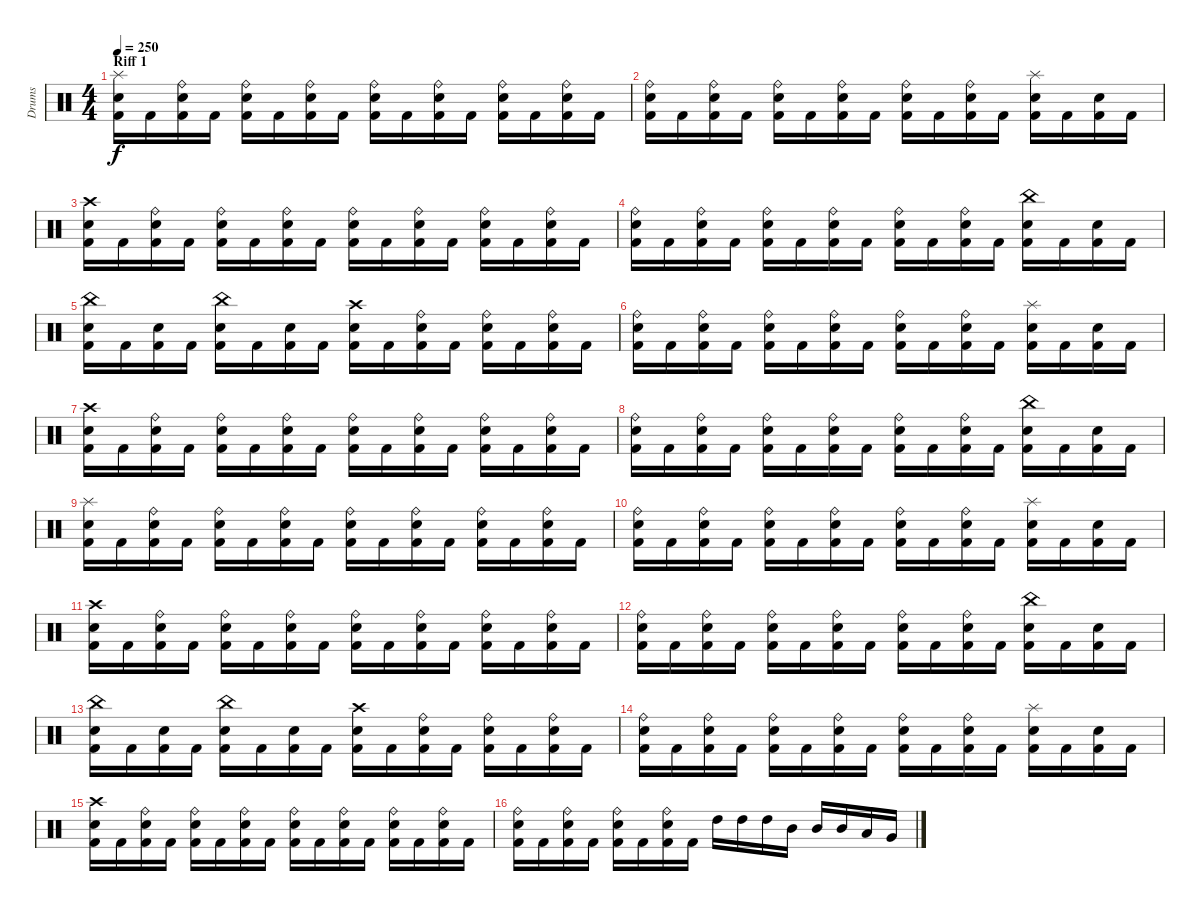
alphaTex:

\track ("Drums" "Drums") {instrument percussion}
\staff {score}
\articulation defaults
\ts (4 4)
\section ("" "Riff 1")
\tempo 250
\clef neutral
\ks c
("Kick (hit) 2" "Snare (hit) 2" "Splash (hit)").16{dy f} "Kick (hit) 2".16 ("Kick (hit) 2" "Snare (hit) 2" "Ride (bell)").16 "Kick (hit) 2".16 ("Kick (hit) 2" "Snare (hit) 2" "Ride (bell)").16 "Kick (hit) 2".16 ("Kick (hit) 2" "Snare (hit) 2" "Ride (bell)").16 "Kick (hit) 2".16 ("Kick (hit) 2" "Snare (hit) 2" "Ride (bell)").16 "Kick (hit) 2".16 ("Kick (hit) 2" "Snare (hit) 2" "Ride (bell)").16 "Kick (hit) 2".16 ("Kick (hit) 2" "Snare (hit) 2" "Ride (bell)").16 "Kick (hit) 2".16 ("Kick (hit) 2" "Snare (hit) 2" "Ride (bell)").16 "Kick (hit) 2".16 |
("Kick (hit) 2" "Snare (hit) 2" "Ride (bell)").16 "Kick (hit) 2".16 ("Kick (hit) 2" "Snare (hit) 2" "Ride (bell)").16 "Kick (hit) 2".16 ("Kick (hit) 2" "Snare (hit) 2" "Ride (bell)").16 "Kick (hit) 2".16 ("Kick (hit) 2" "Snare (hit) 2" "Ride (bell)").16 "Kick (hit) 2".16 ("Kick (hit) 2" "Snare (hit) 2" "Ride (bell)").16 "Kick (hit) 2".16 ("Kick (hit) 2" "Snare (hit) 2" "Ride (bell)").16 "Kick (hit) 2".16 ("Kick (hit) 2" "Snare (hit) 2" "Splash (hit)").16 "Kick (hit) 2".16 ("Kick (hit) 2" "Snare (hit) 2").16 "Kick (hit) 2".16 |
("Kick (hit) 2" "Snare (hit) 2" "Crash high (hit)").16 "Kick (hit) 2".16 ("Kick (hit) 2" "Snare (hit) 2" "Ride (bell)").16 "Kick (hit) 2".16 ("Kick (hit) 2" "Snare (hit) 2" "Ride (bell)").16 "Kick (hit) 2".16 ("Kick (hit) 2" "Snare (hit) 2" "Ride (bell)").16 "Kick (hit) 2".16 ("Kick (hit) 2" "Snare (hit) 2" "Ride (bell)").16 "Kick (hit) 2".16 ("Kick (hit) 2" "Snare (hit) 2" "Ride (bell)").16 "Kick (hit) 2".16 ("Kick (hit) 2" "Snare (hit) 2" "Ride (bell)").16 "Kick (hit) 2".16 ("Kick (hit) 2" "Snare (hit) 2" "Ride (bell)").16 "Kick (hit) 2".16 |
("Kick (hit) 2" "Snare (hit) 2" "Ride (bell)").16 "Kick (hit) 2".16 ("Kick (hit) 2" "Snare (hit) 2" "Ride (bell)").16 "Kick (hit) 2".16 ("Kick (hit) 2" "Snare (hit) 2" "Ride (bell)").16 "Kick (hit) 2".16 ("Kick (hit) 2" "Snare (hit) 2" "Ride (bell)").16 "Kick (hit) 2".16 ("Kick (hit) 2" "Snare (hit) 2" "Ride (bell)").16 "Kick (hit) 2".16 ("Kick (hit) 2" "Snare (hit) 2" "Ride (bell)").16 "Kick (hit) 2".16 ("Kick (hit) 2" "Snare (hit) 2" "China (hit)").16 "Kick (hit) 2".16 ("Kick (hit) 2" "Snare (hit) 2").16 "Kick (hit) 2".16 |
("Kick (hit) 2" "Snare (hit) 2" "China (hit)").16 "Kick (hit) 2".16 ("Kick (hit) 2" "Snare (hit) 2").16 "Kick (hit) 2".16 ("Kick (hit) 2" "Snare (hit) 2" "China (hit)").16 "Kick (hit) 2".16 ("Kick (hit) 2" "Snare (hit) 2").16 "Kick (hit) 2".16 ("Kick (hit) 2" "Snare (hit) 2" "Crash high (hit)").16 "Kick (hit) 2".16 ("Kick (hit) 2" "Snare (hit) 2" "Ride (bell)").16 "Kick (hit) 2".16 ("Kick (hit) 2" "Snare (hit) 2" "Ride (bell)").16 "Kick (hit) 2".16 ("Kick (hit) 2" "Snare (hit) 2" "Ride (bell)").16 "Kick (hit) 2".16 |
("Kick (hit) 2" "Snare (hit) 2" "Ride (bell)").16 "Kick (hit) 2".16 ("Kick (hit) 2" "Snare (hit) 2" "Ride (bell)").16 "Kick (hit) 2".16 ("Kick (hit) 2" "Snare (hit) 2" "Ride (bell)").16 "Kick (hit) 2".16 ("Kick (hit) 2" "Snare (hit) 2" "Ride (bell)").16 "Kick (hit) 2".16 ("Kick (hit) 2" "Snare (hit) 2" "Ride (bell)").16 "Kick (hit) 2".16 ("Kick (hit) 2" "Snare (hit) 2" "Ride (bell)").16 "Kick (hit) 2".16 ("Kick (hit) 2" "Snare (hit) 2" "Splash (hit)").16 "Kick (hit) 2".16 ("Kick (hit) 2" "Snare (hit) 2").16 "Kick (hit) 2".16 |
("Kick (hit) 2" "Snare (hit) 2" "Crash high (hit)").16 "Kick (hit) 2".16 ("Kick (hit) 2" "Snare (hit) 2" "Ride (bell)").16 "Kick (hit) 2".16 ("Kick (hit) 2" "Snare (hit) 2" "Ride (bell)").16 "Kick (hit) 2".16 ("Kick (hit) 2" "Snare (hit) 2" "Ride (bell)").16 "Kick (hit) 2".16 ("Kick (hit) 2" "Snare (hit) 2" "Ride (bell)").16 "Kick (hit) 2".16 ("Kick (hit) 2" "Snare (hit) 2" "Ride (bell)").16 "Kick (hit) 2".16 ("Kick (hit) 2" "Snare (hit) 2" "Ride (bell)").16 "Kick (hit) 2".16 ("Kick (hit) 2" "Snare (hit) 2" "Ride (bell)").16 "Kick (hit) 2".16 |
("Kick (hit) 2" "Snare (hit) 2" "Ride (bell)").16 "Kick (hit) 2".16 ("Kick (hit) 2" "Snare (hit) 2" "Ride (bell)").16 "Kick (hit) 2".16 ("Kick (hit) 2" "Snare (hit) 2" "Ride (bell)").16 "Kick (hit) 2".16 ("Kick (hit) 2" "Snare (hit) 2" "Ride (bell)").16 "Kick (hit) 2".16 ("Kick (hit) 2" "Snare (hit) 2" "Ride (bell)").16 "Kick (hit) 2".16 ("Kick (hit) 2" "Snare (hit) 2" "Ride (bell)").16 "Kick (hit) 2".16 ("Kick (hit) 2" "Snare (hit) 2" "China (hit)").16 "Kick (hit) 2".16 ("Kick (hit) 2" "Snare (hit) 2").16 "Kick (hit) 2".16 |
("Kick (hit) 2" "Snare (hit) 2" "Splash (hit)").16 "Kick (hit) 2".16 ("Kick (hit) 2" "Snare (hit) 2" "Ride (bell)").16 "Kick (hit) 2".16 ("Kick (hit) 2" "Snare (hit) 2" "Ride (bell)").16 "Kick (hit) 2".16 ("Kick (hit) 2" "Snare (hit) 2" "Ride (bell)").16 "Kick (hit) 2".16 ("Kick (hit) 2" "Snare (hit) 2" "Ride (bell)").16 "Kick (hit) 2".16 ("Kick (hit) 2" "Snare (hit) 2" "Ride (bell)").16 "Kick (hit) 2".16 ("Kick (hit) 2" "Snare (hit) 2" "Ride (bell)").16 "Kick (hit) 2".16 ("Kick (hit) 2" "Snare (hit) 2" "Ride (bell)").16 "Kick (hit) 2".16 |
("Kick (hit) 2" "Snare (hit) 2" "Ride (bell)").16 "Kick (hit) 2".16 ("Kick (hit) 2" "Snare (hit) 2" "Ride (bell)").16 "Kick (hit) 2".16 ("Kick (hit) 2" "Snare (hit) 2" "Ride (bell)").16 "Kick (hit) 2".16 ("Kick (hit) 2" "Snare (hit) 2" "Ride (bell)").16 "Kick (hit) 2".16 ("Kick (hit) 2" "Snare (hit) 2" "Ride (bell)").16 "Kick (hit) 2".16 ("Kick (hit) 2" "Snare (hit) 2" "Ride (bell)").16 "Kick (hit) 2".16 ("Kick (hit) 2" "Snare (hit) 2" "Splash (hit)").16 "Kick (hit) 2".16 ("Kick (hit) 2" "Snare (hit) 2").16 "Kick (hit) 2".16 |
("Kick (hit) 2" "Snare (hit) 2" "Crash high (hit)").16 "Kick (hit) 2".16 ("Kick (hit) 2" "Snare (hit) 2" "Ride (bell)").16 "Kick (hit) 2".16 ("Kick (hit) 2" "Snare (hit) 2" "Ride (bell)").16 "Kick (hit) 2".16 ("Kick (hit) 2" "Snare (hit) 2" "Ride (bell)").16 "Kick (hit) 2".16 ("Kick (hit) 2" "Snare (hit) 2" "Ride (bell)").16 "Kick (hit) 2".16 ("Kick (hit) 2" "Snare (hit) 2" "Ride (bell)").16 "Kick (hit) 2".16 ("Kick (hit) 2" "Snare (hit) 2" "Ride (bell)").16 "Kick (hit) 2".16 ("Kick (hit) 2" "Snare (hit) 2" "Ride (bell)").16 "Kick (hit) 2".16 |
("Kick (hit) 2" "Snare (hit) 2" "Ride (bell)").16 "Kick (hit) 2".16 ("Kick (hit) 2" "Snare (hit) 2" "Ride (bell)").16 "Kick (hit) 2".16 ("Kick (hit) 2" "Snare (hit) 2" "Ride (bell)").16 "Kick (hit) 2".16 ("Kick (hit) 2" "Snare (hit) 2" "Ride (bell)").16 "Kick (hit) 2".16 ("Kick (hit) 2" "Snare (hit) 2" "Ride (bell)").16 "Kick (hit) 2".16 ("Kick (hit) 2" "Snare (hit) 2" "Ride (bell)").16 "Kick (hit) 2".16 ("Kick (hit) 2" "Snare (hit) 2" "China (hit)").16 "Kick (hit) 2".16 ("Kick (hit) 2" "Snare (hit) 2").16 "Kick (hit) 2".16 |
("Kick (hit) 2" "Snare (hit) 2" "China (hit)").16 "Kick (hit) 2".16 ("Kick (hit) 2" "Snare (hit) 2").16 "Kick (hit) 2".16 ("Kick (hit) 2" "Snare (hit) 2" "China (hit)").16 "Kick (hit) 2".16 ("Kick (hit) 2" "Snare (hit) 2").16 "Kick (hit) 2".16 ("Kick (hit) 2" "Snare (hit) 2" "Crash high (hit)").16 "Kick (hit) 2".16 ("Kick (hit) 2" "Snare (hit) 2" "Ride (bell)").16 "Kick (hit) 2".16 ("Kick (hit) 2" "Snare (hit) 2" "Ride (bell)").16 "Kick (hit) 2".16 ("Kick (hit) 2" "Snare (hit) 2" "Ride (bell)").16 "Kick (hit) 2".16 |
("Kick (hit) 2" "Snare (hit) 2" "Ride (bell)").16 "Kick (hit) 2".16 ("Kick (hit) 2" "Snare (hit) 2" "Ride (bell)").16 "Kick (hit) 2".16 ("Kick (hit) 2" "Snare (hit) 2" "Ride (bell)").16 "Kick (hit) 2".16 ("Kick (hit) 2" "Snare (hit) 2" "Ride (bell)").16 "Kick (hit) 2".16 ("Kick (hit) 2" "Snare (hit) 2" "Ride (bell)").16 "Kick (hit) 2".16 ("Kick (hit) 2" "Snare (hit) 2" "Ride (bell)").16 "Kick (hit) 2".16 ("Kick (hit) 2" "Snare (hit) 2" "Splash (hit)").16 "Kick (hit) 2".16 ("Kick (hit) 2" "Snare (hit) 2").16 "Kick (hit) 2".16 |
("Kick (hit) 2" "Snare (hit) 2" "Crash high (hit)").16 "Kick (hit) 2".16 ("Kick (hit) 2" "Snare (hit) 2" "Ride (bell)").16 "Kick (hit) 2".16 ("Kick (hit) 2" "Snare (hit) 2" "Ride (bell)").16 "Kick (hit) 2".16 ("Kick (hit) 2" "Snare (hit) 2" "Ride (bell)").16 "Kick (hit) 2".16 ("Kick (hit) 2" "Snare (hit) 2" "Ride (bell)").16 "Kick (hit) 2".16 ("Kick (hit) 2" "Snare (hit) 2" "Ride (bell)").16 "Kick (hit) 2".16 ("Kick (hit) 2" "Snare (hit) 2" "Ride (bell)").16 "Kick (hit) 2".16 ("Kick (hit) 2" "Snare (hit) 2" "Ride (bell)").16 "Kick (hit) 2".16 |
("Kick (hit) 2" "Snare (hit) 2" "Ride (bell)").16 "Kick (hit) 2".16 ("Kick (hit) 2" "Snare (hit) 2" "Ride (bell)").16 "Kick (hit) 2".16 ("Kick (hit) 2" "Snare (hit) 2" "Ride (bell)").16 "Kick (hit) 2".16 ("Kick (hit) 2" "Snare (hit) 2" "Ride (bell)").16 "Kick (hit) 2".16 "High Tom (hit)".16 "High Tom (hit)".16 "High Tom (hit)".16 "Mid Tom (hit)".16 "Mid Tom (hit)".16 "Mid Tom (hit)".16 "Low Tom (hit)".16 "Very Low Tom (hit)".16
